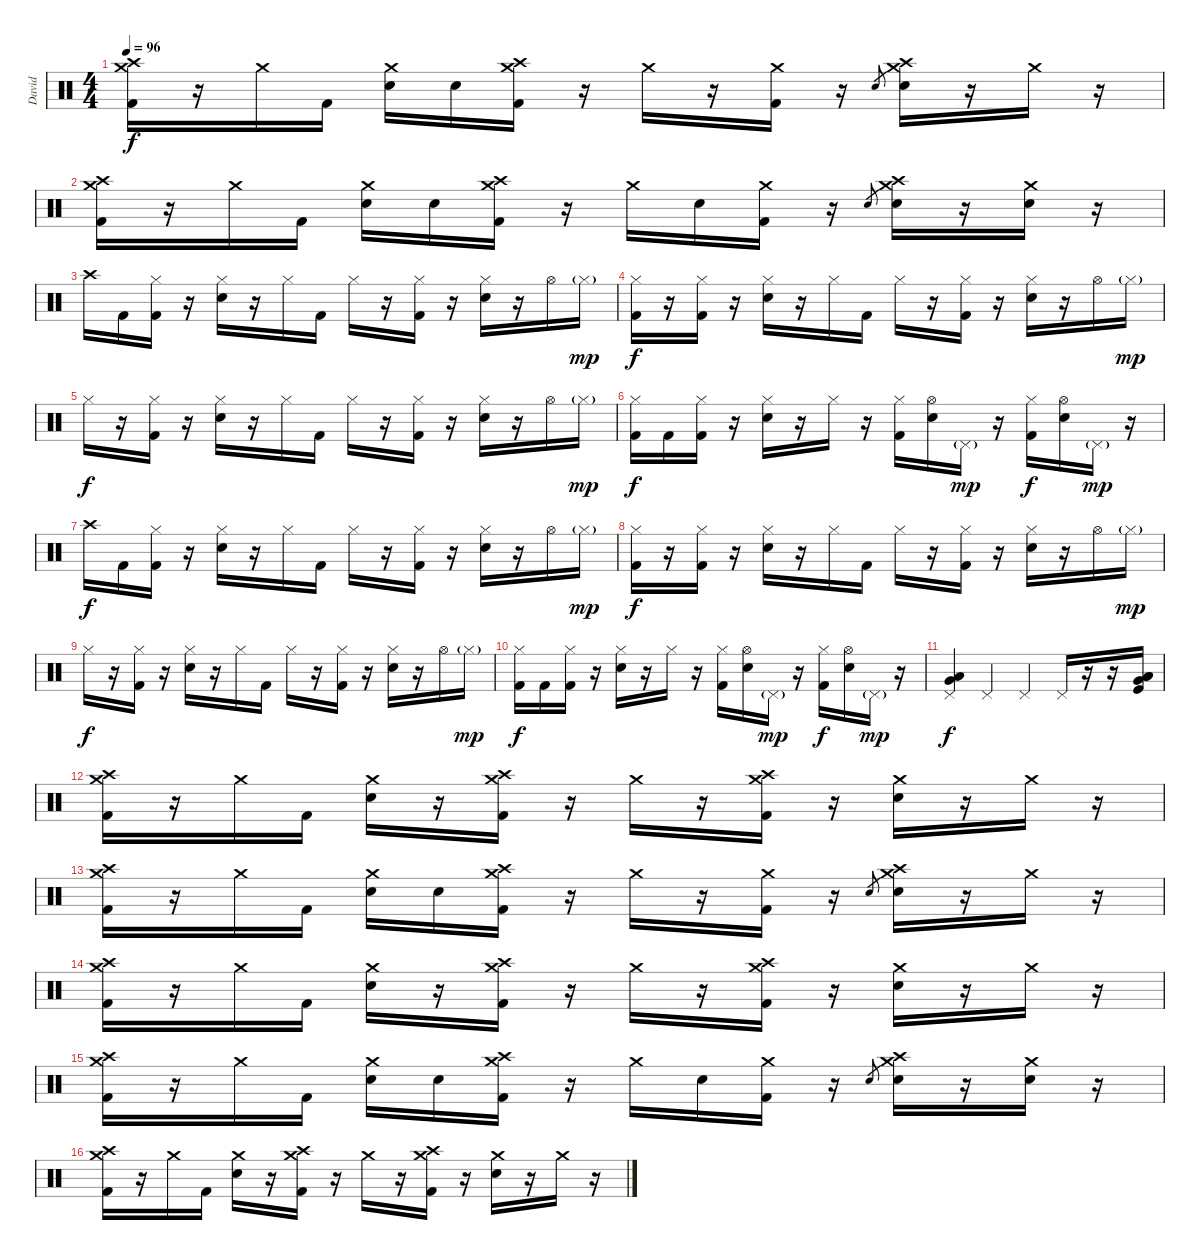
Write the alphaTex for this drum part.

\track ("David" "David") {instrument percussion}
\staff {score}
\articulation defaults
\ts (4 4)
\tempo 96
\clef neutral
\ks c
("Crash high (hit)" "Crash medium (hit)" "Kick (hit) 2").16{dy f} r.16 "Crash medium (hit)".16 "Kick (hit) 2".16 ("Crash medium (hit)" "Electric Snare (hit)").16 "Electric Snare (hit)".16 ("Crash high (hit)" "Crash medium (hit)" "Kick (hit) 2").16 r.16 "Crash medium (hit)".16 r.16 ("Crash medium (hit)" "Kick (hit) 2").16 r.16 "Electric Snare (hit)".8{gr} ("Crash high (hit)" "Crash medium (hit)" "Electric Snare (hit)").16 r.16 "Crash medium (hit)".16 r.16 |
("Crash high (hit)" "Crash medium (hit)" "Kick (hit) 2").16 r.16 "Crash medium (hit)".16 "Kick (hit) 2".16 ("Crash medium (hit)" "Electric Snare (hit)").16 "Electric Snare (hit)".16 ("Crash high (hit)" "Crash medium (hit)" "Kick (hit) 2").16 r.16 "Crash medium (hit)".16 "Electric Snare (hit)".16 ("Crash medium (hit)" "Kick (hit) 2").16 r.16 "Electric Snare (hit)".8{gr} ("Crash high (hit)" "Crash medium (hit)" "Electric Snare (hit)").16 r.16 ("Crash medium (hit)" "Electric Snare (hit)").16 r.16 |
"Crash high (hit)".16 "Kick (hit) 2".16 ("Hi-Hat (closed)" "Kick (hit) 2").16 r.16 ("Hi-Hat (closed)" "Electric Snare (hit)").16 r.16 "Hi-Hat (closed)".16 "Kick (hit) 2".16 "Hi-Hat (closed)".16 r.16 ("Hi-Hat (closed)" "Kick (hit) 2").16 r.16 ("Hi-Hat (closed)" "Electric Snare (hit)").16 r.16 "Hi-Hat (open)".16 "Hi-Hat (closed)"{g}.16{dy mp} |
("Hi-Hat (closed)" "Kick (hit) 2").16{dy f} r.16 ("Hi-Hat (closed)" "Kick (hit) 2").16 r.16 ("Hi-Hat (closed)" "Electric Snare (hit)").16 r.16 "Hi-Hat (closed)".16 "Kick (hit) 2".16 "Hi-Hat (closed)".16 r.16 ("Hi-Hat (closed)" "Kick (hit) 2").16 r.16 ("Hi-Hat (closed)" "Electric Snare (hit)").16 r.16 "Hi-Hat (open)".16 "Hi-Hat (closed)"{g}.16{dy mp} |
"Hi-Hat (closed)".16{dy f} r.16 ("Hi-Hat (closed)" "Kick (hit) 2").16 r.16 ("Hi-Hat (closed)" "Electric Snare (hit)").16 r.16 "Hi-Hat (closed)".16 "Kick (hit) 2".16 "Hi-Hat (closed)".16 r.16 ("Hi-Hat (closed)" "Kick (hit) 2").16 r.16 ("Hi-Hat (closed)" "Electric Snare (hit)").16 r.16 "Hi-Hat (open)".16 "Hi-Hat (closed)"{g}.16{dy mp} |
("Hi-Hat (closed)" "Kick (hit) 2").16{dy f} "Kick (hit) 2".16 ("Hi-Hat (closed)" "Kick (hit) 2").16 r.16 ("Hi-Hat (closed)" "Electric Snare (hit)").16 r.16 "Hi-Hat (closed)".16 r.16 ("Hi-Hat (closed)" "Kick (hit) 2").16 ("Hi-Hat (open)" "Electric Snare (hit)").16 "Pedal Hi-Hat (hit)"{g}.16{dy mp} r.16 ("Hi-Hat (closed)" "Kick (hit) 2").16{dy f} ("Hi-Hat (open)" "Electric Snare (hit)").16 "Pedal Hi-Hat (hit)"{g}.16{dy mp} r.16 |
"Crash high (hit)".16{dy f} "Kick (hit) 2".16 ("Hi-Hat (closed)" "Kick (hit) 2").16 r.16 ("Hi-Hat (closed)" "Electric Snare (hit)").16 r.16 "Hi-Hat (closed)".16 "Kick (hit) 2".16 "Hi-Hat (closed)".16 r.16 ("Hi-Hat (closed)" "Kick (hit) 2").16 r.16 ("Hi-Hat (closed)" "Electric Snare (hit)").16 r.16 "Hi-Hat (open)".16 "Hi-Hat (closed)"{g}.16{dy mp} |
("Hi-Hat (closed)" "Kick (hit) 2").16{dy f} r.16 ("Hi-Hat (closed)" "Kick (hit) 2").16 r.16 ("Hi-Hat (closed)" "Electric Snare (hit)").16 r.16 "Hi-Hat (closed)".16 "Kick (hit) 2".16 "Hi-Hat (closed)".16 r.16 ("Hi-Hat (closed)" "Kick (hit) 2").16 r.16 ("Hi-Hat (closed)" "Electric Snare (hit)").16 r.16 "Hi-Hat (open)".16 "Hi-Hat (closed)"{g}.16{dy mp} |
"Hi-Hat (closed)".16{dy f} r.16 ("Hi-Hat (closed)" "Kick (hit) 2").16 r.16 ("Hi-Hat (closed)" "Electric Snare (hit)").16 r.16 "Hi-Hat (closed)".16 "Kick (hit) 2".16 "Hi-Hat (closed)".16 r.16 ("Hi-Hat (closed)" "Kick (hit) 2").16 r.16 ("Hi-Hat (closed)" "Electric Snare (hit)").16 r.16 "Hi-Hat (open)".16 "Hi-Hat (closed)"{g}.16{dy mp} |
("Hi-Hat (closed)" "Kick (hit) 2").16{dy f} "Kick (hit) 2".16 ("Hi-Hat (closed)" "Kick (hit) 2").16 r.16 ("Hi-Hat (closed)" "Electric Snare (hit)").16 r.16 "Hi-Hat (closed)".16 r.16 ("Hi-Hat (closed)" "Kick (hit) 2").16 ("Hi-Hat (open)" "Electric Snare (hit)").16 "Pedal Hi-Hat (hit)"{g}.16{dy mp} r.16 ("Hi-Hat (closed)" "Kick (hit) 2").16{dy f} ("Hi-Hat (open)" "Electric Snare (hit)").16 "Pedal Hi-Hat (hit)"{g}.16{dy mp} r.16 |
("Pedal Hi-Hat (hit)" "Very Low Tom (hit)" "Low Floor Tom (hit)").4{dy f} "Pedal Hi-Hat (hit)".4 "Pedal Hi-Hat (hit)".4 "Pedal Hi-Hat (hit)".16 r.16 r.16 ("Very Low Tom (hit)" "Low Floor Tom (hit)" "Low Floor Tom (hit)" "Kick (hit)").16 |
("Crash high (hit)" "Crash medium (hit)" "Kick (hit) 2").16 r.16 "Crash medium (hit)".16 "Kick (hit) 2".16 ("Crash medium (hit)" "Electric Snare (hit)").16 r.16 ("Crash high (hit)" "Crash medium (hit)" "Kick (hit) 2").16 r.16 "Crash medium (hit)".16 r.16 ("Crash high (hit)" "Crash medium (hit)" "Kick (hit) 2").16 r.16 ("Crash medium (hit)" "Electric Snare (hit)").16 r.16 "Crash medium (hit)".16 r.16 |
("Crash high (hit)" "Crash medium (hit)" "Kick (hit) 2").16 r.16 "Crash medium (hit)".16 "Kick (hit) 2".16 ("Crash medium (hit)" "Electric Snare (hit)").16 "Electric Snare (hit)".16 ("Crash high (hit)" "Crash medium (hit)" "Kick (hit) 2").16 r.16 "Crash medium (hit)".16 r.16 ("Crash medium (hit)" "Kick (hit) 2").16 r.16 "Electric Snare (hit)".8{gr} ("Crash high (hit)" "Crash medium (hit)" "Electric Snare (hit)").16 r.16 "Crash medium (hit)".16 r.16 |
("Crash high (hit)" "Crash medium (hit)" "Kick (hit) 2").16 r.16 "Crash medium (hit)".16 "Kick (hit) 2".16 ("Crash medium (hit)" "Electric Snare (hit)").16 r.16 ("Crash high (hit)" "Crash medium (hit)" "Kick (hit) 2").16 r.16 "Crash medium (hit)".16 r.16 ("Crash high (hit)" "Crash medium (hit)" "Kick (hit) 2").16 r.16 ("Crash medium (hit)" "Electric Snare (hit)").16 r.16 "Crash medium (hit)".16 r.16 |
("Crash high (hit)" "Crash medium (hit)" "Kick (hit) 2").16 r.16 "Crash medium (hit)".16 "Kick (hit) 2".16 ("Crash medium (hit)" "Electric Snare (hit)").16 "Electric Snare (hit)".16 ("Crash high (hit)" "Crash medium (hit)" "Kick (hit) 2").16 r.16 "Crash medium (hit)".16 "Electric Snare (hit)".16 ("Crash medium (hit)" "Kick (hit) 2").16 r.16 "Electric Snare (hit)".8{gr} ("Crash high (hit)" "Crash medium (hit)" "Electric Snare (hit)").16 r.16 ("Crash medium (hit)" "Electric Snare (hit)").16 r.16 |
("Crash high (hit)" "Crash medium (hit)" "Kick (hit) 2").16 r.16 "Crash medium (hit)".16 "Kick (hit) 2".16 ("Crash medium (hit)" "Electric Snare (hit)").16 r.16 ("Crash high (hit)" "Crash medium (hit)" "Kick (hit) 2").16 r.16 "Crash medium (hit)".16 r.16 ("Crash high (hit)" "Crash medium (hit)" "Kick (hit) 2").16 r.16 ("Crash medium (hit)" "Electric Snare (hit)").16 r.16 "Crash medium (hit)".16 r.16
